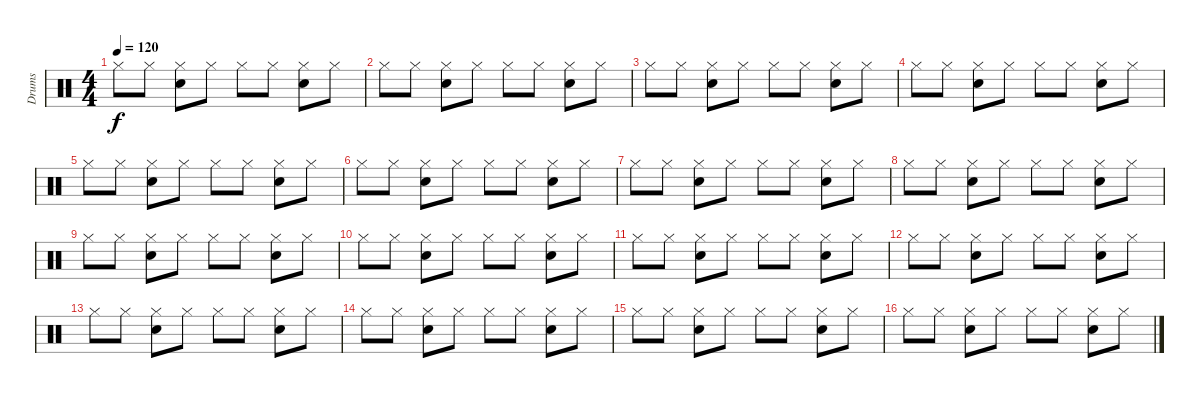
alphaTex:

\track ("Drums" "Drums") {instrument percussion}
\staff {score}
\articulation defaults
\ts (4 4)
\tempo 120
\clef neutral
\ks c "Hi-Hat (closed)".8{dy f} "Hi-Hat (closed)".8
("Hi-Hat (closed)" "Electric Snare (hit)").8 "Hi-Hat (closed)".8 "Hi-Hat (closed)".8 "Hi-Hat (closed)".8 ("Hi-Hat (closed)" "Electric Snare (hit)").8 "Hi-Hat (closed)".8 |
"Hi-Hat (closed)".8 "Hi-Hat (closed)".8 ("Hi-Hat (closed)" "Electric Snare (hit)").8 "Hi-Hat (closed)".8 "Hi-Hat (closed)".8 "Hi-Hat (closed)".8 ("Hi-Hat (closed)" "Electric Snare (hit)").8 "Hi-Hat (closed)".8 |
"Hi-Hat (closed)".8 "Hi-Hat (closed)".8 ("Hi-Hat (closed)" "Electric Snare (hit)").8 "Hi-Hat (closed)".8 "Hi-Hat (closed)".8 "Hi-Hat (closed)".8 ("Hi-Hat (closed)" "Electric Snare (hit)").8 "Hi-Hat (closed)".8 |
"Hi-Hat (closed)".8 "Hi-Hat (closed)".8 ("Hi-Hat (closed)" "Electric Snare (hit)").8 "Hi-Hat (closed)".8 "Hi-Hat (closed)".8 "Hi-Hat (closed)".8 ("Hi-Hat (closed)" "Electric Snare (hit)").8 "Hi-Hat (closed)".8 |
"Hi-Hat (closed)".8 "Hi-Hat (closed)".8 ("Hi-Hat (closed)" "Electric Snare (hit)").8 "Hi-Hat (closed)".8 "Hi-Hat (closed)".8 "Hi-Hat (closed)".8 ("Hi-Hat (closed)" "Electric Snare (hit)").8 "Hi-Hat (closed)".8 |
"Hi-Hat (closed)".8 "Hi-Hat (closed)".8 ("Hi-Hat (closed)" "Electric Snare (hit)").8 "Hi-Hat (closed)".8 "Hi-Hat (closed)".8 "Hi-Hat (closed)".8 ("Hi-Hat (closed)" "Electric Snare (hit)").8 "Hi-Hat (closed)".8 |
"Hi-Hat (closed)".8 "Hi-Hat (closed)".8 ("Hi-Hat (closed)" "Electric Snare (hit)").8 "Hi-Hat (closed)".8 "Hi-Hat (closed)".8 "Hi-Hat (closed)".8 ("Hi-Hat (closed)" "Electric Snare (hit)").8 "Hi-Hat (closed)".8 |
"Hi-Hat (closed)".8 "Hi-Hat (closed)".8 ("Hi-Hat (closed)" "Electric Snare (hit)").8 "Hi-Hat (closed)".8 "Hi-Hat (closed)".8 "Hi-Hat (closed)".8 ("Hi-Hat (closed)" "Electric Snare (hit)").8 "Hi-Hat (closed)".8 |
"Hi-Hat (closed)".8 "Hi-Hat (closed)".8 ("Hi-Hat (closed)" "Electric Snare (hit)").8 "Hi-Hat (closed)".8 "Hi-Hat (closed)".8 "Hi-Hat (closed)".8 ("Hi-Hat (closed)" "Electric Snare (hit)").8 "Hi-Hat (closed)".8 |
"Hi-Hat (closed)".8 "Hi-Hat (closed)".8 ("Hi-Hat (closed)" "Electric Snare (hit)").8 "Hi-Hat (closed)".8 "Hi-Hat (closed)".8 "Hi-Hat (closed)".8 ("Hi-Hat (closed)" "Electric Snare (hit)").8 "Hi-Hat (closed)".8 |
"Hi-Hat (closed)".8 "Hi-Hat (closed)".8 ("Hi-Hat (closed)" "Electric Snare (hit)").8 "Hi-Hat (closed)".8 "Hi-Hat (closed)".8 "Hi-Hat (closed)".8 ("Hi-Hat (closed)" "Electric Snare (hit)").8 "Hi-Hat (closed)".8 |
"Hi-Hat (closed)".8 "Hi-Hat (closed)".8 ("Hi-Hat (closed)" "Electric Snare (hit)").8 "Hi-Hat (closed)".8 "Hi-Hat (closed)".8 "Hi-Hat (closed)".8 ("Hi-Hat (closed)" "Electric Snare (hit)").8 "Hi-Hat (closed)".8 |
"Hi-Hat (closed)".8 "Hi-Hat (closed)".8 ("Hi-Hat (closed)" "Electric Snare (hit)").8 "Hi-Hat (closed)".8 "Hi-Hat (closed)".8 "Hi-Hat (closed)".8 ("Hi-Hat (closed)" "Electric Snare (hit)").8 "Hi-Hat (closed)".8 |
"Hi-Hat (closed)".8 "Hi-Hat (closed)".8 ("Hi-Hat (closed)" "Electric Snare (hit)").8 "Hi-Hat (closed)".8 "Hi-Hat (closed)".8 "Hi-Hat (closed)".8 ("Hi-Hat (closed)" "Electric Snare (hit)").8 "Hi-Hat (closed)".8 |
"Hi-Hat (closed)".8 "Hi-Hat (closed)".8 ("Hi-Hat (closed)" "Electric Snare (hit)").8 "Hi-Hat (closed)".8 "Hi-Hat (closed)".8 "Hi-Hat (closed)".8 ("Hi-Hat (closed)" "Electric Snare (hit)").8 "Hi-Hat (closed)".8 |
"Hi-Hat (closed)".8 "Hi-Hat (closed)".8 ("Hi-Hat (closed)" "Electric Snare (hit)").8 "Hi-Hat (closed)".8 "Hi-Hat (closed)".8 "Hi-Hat (closed)".8 ("Hi-Hat (closed)" "Electric Snare (hit)").8 "Hi-Hat (closed)".8
